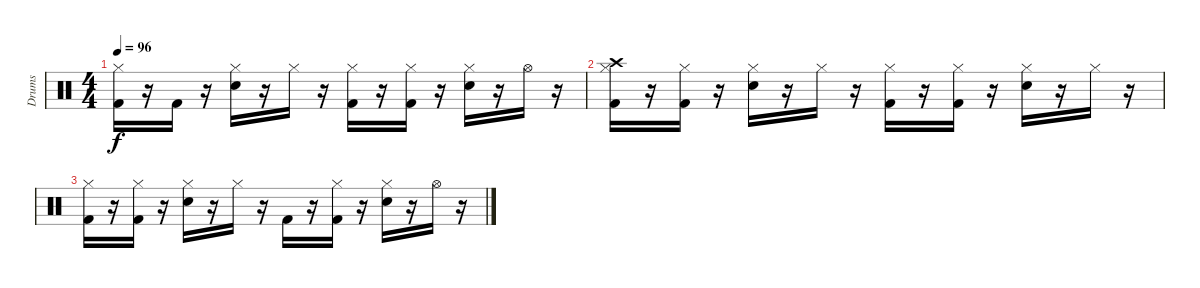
\track ("Drums" "Drums") {instrument percussion}
\staff {score}
\articulation defaults
\ts (4 4)
\tempo 96
\clef neutral
\ks c
("Kick (hit) 2" "Hi-Hat (closed)").16{dy f} r.16 "Kick (hit) 2".16 r.16 ("Snare (hit) 2" "Hi-Hat (closed)").16 r.16 "Hi-Hat (closed)".16 r.16 ("Kick (hit) 2" "Hi-Hat (closed)").16 r.16 ("Kick (hit) 2" "Hi-Hat (closed)").16 r.16 ("Snare (hit) 2" "Hi-Hat (closed)").16 r.16 "Hi-Hat (open)".16 r.16 |
("Kick (hit) 2" "Hi-Hat (closed)" "Crash high (hit)").16 r.16 ("Kick (hit) 2" "Hi-Hat (closed)").16 r.16 ("Snare (hit) 2" "Hi-Hat (closed)").16 r.16 "Hi-Hat (closed)".16 r.16 ("Kick (hit) 2" "Hi-Hat (closed)").16 r.16 ("Kick (hit) 2" "Hi-Hat (closed)").16 r.16 ("Snare (hit) 2" "Hi-Hat (closed)").16 r.16 "Hi-Hat (closed)".16 r.16 |
("Kick (hit) 2" "Hi-Hat (closed)").16 r.16 ("Kick (hit) 2" "Hi-Hat (closed)").16 r.16 ("Snare (hit) 2" "Hi-Hat (closed)").16 r.16 "Hi-Hat (closed)".16 r.16 "Kick (hit) 2".16 r.16 ("Kick (hit) 2" "Hi-Hat (closed)").16 r.16 ("Snare (hit) 2" "Hi-Hat (closed)").16 r.16 "Hi-Hat (open)".16 r.16
